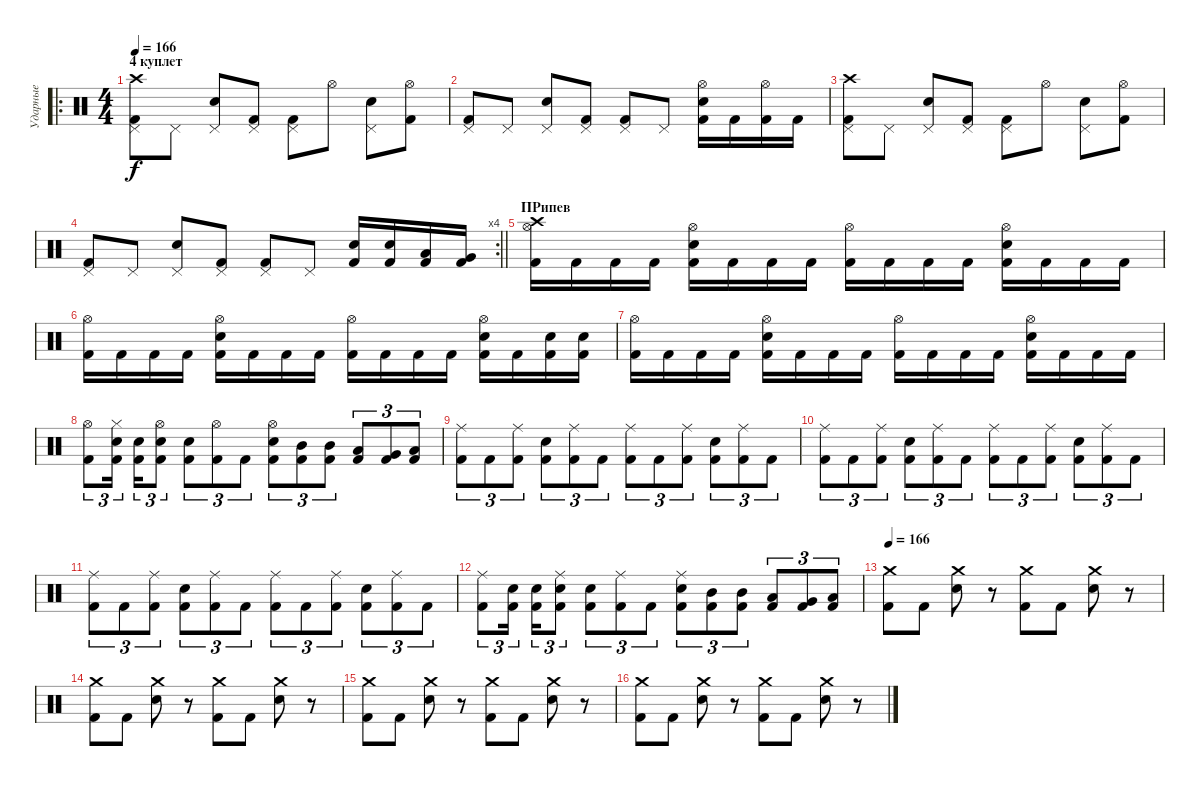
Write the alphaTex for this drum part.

\track ("Ударные" "Ударные") {instrument percussion}
\staff {score}
\articulation defaults
\ro
\ts (4 4)
\section ("" "4 куплет")
\tempo 166
\clef neutral
\ks c
("Crash high (hit)" "Pedal Hi-Hat (hit)" "Kick (hit) 2").8{dy f} "Pedal Hi-Hat (hit)".8 ("Pedal Hi-Hat (hit)" "Snare (hit) 2").8 ("Pedal Hi-Hat (hit)" "Kick (hit) 2").8 ("Pedal Hi-Hat (hit)" "Kick (hit) 2").8 "Hi-Hat (open)".8 ("Pedal Hi-Hat (hit)" "Snare (hit) 2").8 ("Hi-Hat (open)" "Kick (hit) 2").8 |
("Pedal Hi-Hat (hit)" "Kick (hit) 2").8 "Pedal Hi-Hat (hit)".8 ("Pedal Hi-Hat (hit)" "Snare (hit) 2").8 ("Pedal Hi-Hat (hit)" "Kick (hit) 2").8 ("Pedal Hi-Hat (hit)" "Kick (hit) 2").8 "Pedal Hi-Hat (hit)".8 ("Hi-Hat (open)" "Snare (hit) 2" "Kick (hit) 2").16 "Kick (hit) 2".16 ("Hi-Hat (open)" "Kick (hit) 2").16 "Kick (hit) 2".16 |
("Crash high (hit)" "Pedal Hi-Hat (hit)" "Kick (hit) 2").8 "Pedal Hi-Hat (hit)".8 ("Pedal Hi-Hat (hit)" "Snare (hit) 2").8 ("Pedal Hi-Hat (hit)" "Kick (hit) 2").8 ("Pedal Hi-Hat (hit)" "Kick (hit) 2").8 "Hi-Hat (open)".8 ("Pedal Hi-Hat (hit)" "Snare (hit) 2").8 ("Hi-Hat (open)" "Kick (hit) 2").8 |
\rc 4
\barLineRight lightlight
("Pedal Hi-Hat (hit)" "Kick (hit) 2").8 "Pedal Hi-Hat (hit)".8 ("Pedal Hi-Hat (hit)" "Snare (hit) 2").8 ("Pedal Hi-Hat (hit)" "Kick (hit) 2").8 ("Pedal Hi-Hat (hit)" "Kick (hit) 2").8 "Pedal Hi-Hat (hit)".8 ("Snare (hit) 2" "Kick (hit) 2").16 ("Snare (hit) 2" "Kick (hit) 2").16 ("Low Tom (hit)" "Kick (hit) 2").16 ("Very Low Tom (hit)" "Kick (hit) 2").16 |
\section ("" "ПРипев")
("Hi-Hat (open)" "Crash high (hit)" "Kick (hit) 2").16 "Kick (hit) 2".16 "Kick (hit) 2".16 "Kick (hit) 2".16 ("Hi-Hat (open)" "Snare (hit) 2" "Kick (hit) 2").16 "Kick (hit) 2".16 "Kick (hit) 2".16 "Kick (hit) 2".16 ("Hi-Hat (open)" "Kick (hit) 2").16 "Kick (hit) 2".16 "Kick (hit) 2".16 "Kick (hit) 2".16 ("Hi-Hat (open)" "Snare (hit) 2" "Kick (hit) 2").16 "Kick (hit) 2".16 "Kick (hit) 2".16 "Kick (hit) 2".16 |
("Hi-Hat (open)" "Kick (hit) 2").16 "Kick (hit) 2".16 "Kick (hit) 2".16 "Kick (hit) 2".16 ("Hi-Hat (open)" "Snare (hit) 2" "Kick (hit) 2").16 "Kick (hit) 2".16 "Kick (hit) 2".16 "Kick (hit) 2".16 ("Hi-Hat (open)" "Kick (hit) 2").16 "Kick (hit) 2".16 "Kick (hit) 2".16 "Kick (hit) 2".16 ("Hi-Hat (open)" "Snare (hit) 2" "Kick (hit) 2").16 "Kick (hit) 2".16 ("Snare (hit) 2" "Kick (hit) 2").16 ("Snare (hit) 2" "Kick (hit) 2").16 |
("Hi-Hat (open)" "Kick (hit) 2").16 "Kick (hit) 2".16 "Kick (hit) 2".16 "Kick (hit) 2".16 ("Hi-Hat (open)" "Snare (hit) 2" "Kick (hit) 2").16 "Kick (hit) 2".16 "Kick (hit) 2".16 "Kick (hit) 2".16 ("Hi-Hat (open)" "Kick (hit) 2").16 "Kick (hit) 2".16 "Kick (hit) 2".16 "Kick (hit) 2".16 ("Hi-Hat (open)" "Snare (hit) 2" "Kick (hit) 2").16 "Kick (hit) 2".16 "Kick (hit) 2".16 "Kick (hit) 2".16 |
("Hi-Hat (open)" "Kick (hit) 2").8{tu (3 2)} ("Hi-Hat (closed)" "Snare (hit) 2" "Kick (hit) 2").16{tu (3 2) beam splitsecondary} ("Snare (hit) 2" "Kick (hit) 2").16{tu (3 2)} ("Hi-Hat (open)" "Snare (hit) 2" "Kick (hit) 2").8{tu (3 2)} ("Snare (hit) 2" "Kick (hit) 2").8{tu (3 2)} ("Hi-Hat (open)" "Kick (hit) 2").8{tu (3 2)} "Kick (hit) 2".8{tu (3 2)} ("Hi-Hat (open)" "Snare (hit) 2" "Kick (hit) 2").8{tu (3 2)} ("Mid Tom (hit)" "Kick (hit) 2").8{tu (3 2)} ("Mid Tom (hit)" "Kick (hit) 2").8{tu (3 2)} ("Low Tom (hit)" "Kick (hit) 2").8{tu (3 2)} ("Very Low Tom (hit)" "Kick (hit) 2").8{tu (3 2)} ("Low Floor Tom (hit)" "Kick (hit) 2").8{tu (3 2)} |
("Ride (middle)" "Kick (hit) 2").8{tu (3 2)} "Kick (hit) 2".8{tu (3 2)} ("Ride (middle)" "Kick (hit) 2").8{tu (3 2)} ("Snare (hit) 2" "Kick (hit) 2").8{tu (3 2)} ("Ride (middle)" "Kick (hit) 2").8{tu (3 2)} "Kick (hit) 2".8{tu (3 2)} ("Ride (middle)" "Kick (hit) 2").8{tu (3 2)} "Kick (hit) 2".8{tu (3 2)} ("Ride (middle)" "Kick (hit) 2").8{tu (3 2)} ("Snare (hit) 2" "Kick (hit) 2").8{tu (3 2)} ("Ride (middle)" "Kick (hit) 2").8{tu (3 2)} "Kick (hit) 2".8{tu (3 2)} |
("Ride (middle)" "Kick (hit) 2").8{tu (3 2)} "Kick (hit) 2".8{tu (3 2)} ("Ride (middle)" "Kick (hit) 2").8{tu (3 2)} ("Snare (hit) 2" "Kick (hit) 2").8{tu (3 2)} ("Ride (middle)" "Kick (hit) 2").8{tu (3 2)} "Kick (hit) 2".8{tu (3 2)} ("Ride (middle)" "Kick (hit) 2").8{tu (3 2)} "Kick (hit) 2".8{tu (3 2)} ("Ride (middle)" "Kick (hit) 2").8{tu (3 2)} ("Snare (hit) 2" "Kick (hit) 2").8{tu (3 2)} ("Ride (middle)" "Kick (hit) 2").8{tu (3 2)} "Kick (hit) 2".8{tu (3 2)} |
("Ride (middle)" "Kick (hit) 2").8{tu (3 2)} "Kick (hit) 2".8{tu (3 2)} ("Ride (middle)" "Kick (hit) 2").8{tu (3 2)} ("Snare (hit) 2" "Kick (hit) 2").8{tu (3 2)} ("Ride (middle)" "Kick (hit) 2").8{tu (3 2)} "Kick (hit) 2".8{tu (3 2)} ("Ride (middle)" "Kick (hit) 2").8{tu (3 2)} "Kick (hit) 2".8{tu (3 2)} ("Ride (middle)" "Kick (hit) 2").8{tu (3 2)} ("Snare (hit) 2" "Kick (hit) 2").8{tu (3 2)} ("Ride (middle)" "Kick (hit) 2").8{tu (3 2)} "Kick (hit) 2".8{tu (3 2)} |
("Ride (middle)" "Kick (hit) 2").8{tu (3 2)} ("Snare (hit) 2" "Kick (hit) 2").16{tu (3 2) beam splitsecondary} ("Snare (hit) 2" "Kick (hit) 2").16{tu (3 2)} ("Ride (middle)" "Snare (hit) 2" "Kick (hit) 2").8{tu (3 2)} ("Snare (hit) 2" "Kick (hit) 2").8{tu (3 2)} ("Ride (middle)" "Kick (hit) 2").8{tu (3 2)} "Kick (hit) 2".8{tu (3 2)} ("Ride (middle)" "Snare (hit) 2" "Kick (hit) 2").8{tu (3 2)} ("Mid Tom (hit)" "Kick (hit) 2").8{tu (3 2)} ("Mid Tom (hit)" "Kick (hit) 2").8{tu (3 2)} ("Low Tom (hit)" "Kick (hit) 2").8{tu (3 2)} ("Very Low Tom (hit)" "Kick (hit) 2").8{tu (3 2)} ("Low Floor Tom (hit)" "Kick (hit) 2").8{tu (3 2)} |
\tempo 166
("Crash medium (hit)" "Kick (hit) 2").8 "Kick (hit) 2".8 ("Crash medium (hit)" "Snare (hit) 2").8 r.8 ("Crash medium (hit)" "Kick (hit) 2").8 "Kick (hit) 2".8 ("Crash medium (hit)" "Snare (hit) 2").8 r.8 |
("Crash medium (hit)" "Kick (hit) 2").8 "Kick (hit) 2".8 ("Crash medium (hit)" "Snare (hit) 2").8 r.8 ("Crash medium (hit)" "Kick (hit) 2").8 "Kick (hit) 2".8 ("Crash medium (hit)" "Snare (hit) 2").8 r.8 |
("Crash medium (hit)" "Kick (hit) 2").8 "Kick (hit) 2".8 ("Crash medium (hit)" "Snare (hit) 2").8 r.8 ("Crash medium (hit)" "Kick (hit) 2").8 "Kick (hit) 2".8 ("Crash medium (hit)" "Snare (hit) 2").8 r.8 |
("Crash medium (hit)" "Kick (hit) 2").8 "Kick (hit) 2".8 ("Crash medium (hit)" "Snare (hit) 2").8 r.8 ("Crash medium (hit)" "Kick (hit) 2").8 "Kick (hit) 2".8 ("Crash medium (hit)" "Snare (hit) 2").8 r.8
